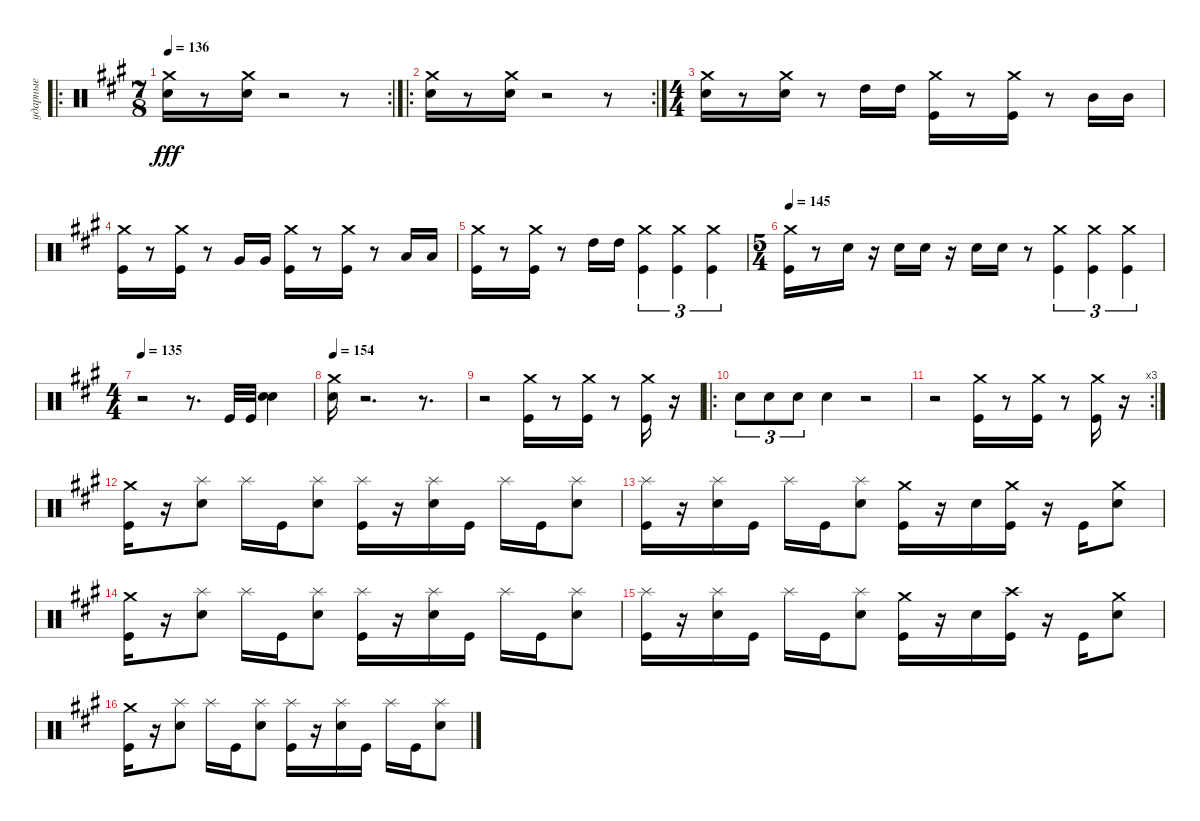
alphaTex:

\track ("ударные" "ударные") {instrument percussion}
\staff {score}
\articulation defaults
\ro
\rc 2
\ts (7 8)
\tempo 136
\clef neutral
\ks f#minor
("Crash medium (hit)" "Snare (hit) 2").16{dy fff} r.8 ("Crash medium (hit)" "Snare (hit) 2").16 r.2 r.8 |
\ro
\rc 2
("Crash medium (hit)" "Snare (hit) 2").16 r.8 ("Crash medium (hit)" "Snare (hit) 2").16 r.2 r.8 |
\ts (4 4)
("Crash medium (hit)" "Snare (hit) 2").16 r.8 ("Snare (hit) 2" "Crash medium (hit)").16 r.8 "High Tom (hit)".16 "High Tom (hit)".16 ("Crash medium (hit)" "Kick (hit)").16 r.8 ("Crash medium (hit)" "Kick (hit)").16 r.8 "Mid Tom (hit)".16 "Mid Tom (hit)".16 |
("Crash medium (hit)" "Kick (hit)").16 r.8 ("Crash medium (hit)" "Kick (hit)").16 r.8 "Very Low Tom (hit)".16 "Very Low Tom (hit)".16 ("Crash medium (hit)" "Kick (hit)").16 r.8 ("Crash medium (hit)" "Kick (hit)").16 r.8 "Low Tom (hit)".16 "Low Tom (hit)".16 |
("Crash medium (hit)" "Kick (hit)").16 r.8 ("Crash medium (hit)" "Kick (hit)").16 r.8 "High Tom (hit)".16 "High Tom (hit)".16 ("Kick (hit)" "Crash medium (hit)").4{tu (3 2)} ("Kick (hit)" "Crash medium (hit)").4{tu (3 2)} ("Kick (hit)" "Crash medium (hit)").4{tu (3 2)} |
\ts (5 4)
\tempo 145
("Crash medium (hit)" "Kick (hit)").16 r.8 "Snare (hit) 2".16 r.16 "Snare (hit) 2".16 "Snare (hit) 2".16 r.16 "Snare (hit) 2".16 "Snare (hit) 2".16 r.8 ("Kick (hit)" "Crash medium (hit)").4{tu (3 2)} ("Kick (hit)" "Crash medium (hit)").4{tu (3 2)} ("Crash medium (hit)" "Kick (hit)").4{tu (3 2)} |
\ts (4 4)
\tempo 135
r.2 r.8{d} "Kick (hit)".32 "Kick (hit)".32 ("Snare (hit) 2" "Snare (hit) 2").4 |
\tempo 154
("Crash medium (hit)" "Snare (hit) 2").16 r.2{d} r.8{d} |
r.2 ("Crash medium (hit)" "Kick (hit)").16 r.8 ("Crash medium (hit)" "Kick (hit)").16 r.8 ("Crash medium (hit)" "Kick (hit)").16 r.16 |
\ro "Snare (hit) 2".8{tu (3 2)} "Snare (hit) 2".8{tu (3 2)} "Snare (hit) 2".8{tu (3 2)} "Snare (hit) 2".4
r.2 |
\rc 3
r.2 ("Crash medium (hit)" "Kick (hit)").16 r.8 ("Kick (hit)" "Crash medium (hit)").16 r.8 ("Crash medium (hit)" "Kick (hit)").16 r.16 |
("Kick (hit)" "Crash medium (hit)").16 r.16 ("Snare (hit) 2" "Splash (hit)").8 "Splash (hit)".16 "Kick (hit)".16 ("Snare (hit) 2" "Splash (hit)").8 ("Kick (hit)" "Splash (hit)").16 r.16 ("Snare (hit) 2" "Splash (hit)").16 "Kick (hit)".16 "Splash (hit)".16 "Kick (hit)".16 ("Snare (hit) 2" "Splash (hit)").8 |
("Kick (hit)" "Splash (hit)").16 r.16 ("Snare (hit) 2" "Splash (hit)").16 "Kick (hit)".16 "Splash (hit)".16 "Kick (hit)".16 ("Snare (hit) 2" "Splash (hit)").8 ("Crash medium (hit)" "Kick (hit)").16 r.16 "Snare (hit) 2".16 ("Crash medium (hit)" "Kick (hit)").16 r.16 "Kick (hit)".16 ("Crash medium (hit)" "Snare (hit) 2").8 |
("Kick (hit)" "Crash medium (hit)").16 r.16 ("Snare (hit) 2" "Splash (hit)").8 "Splash (hit)".16 "Kick (hit)".16 ("Snare (hit) 2" "Splash (hit)").8 ("Kick (hit)" "Splash (hit)").16 r.16 ("Snare (hit) 2" "Splash (hit)").16 "Kick (hit)".16 "Splash (hit)".16 "Kick (hit)".16 ("Snare (hit) 2" "Splash (hit)").8 |
("Kick (hit)" "Splash (hit)").16 r.16 ("Snare (hit) 2" "Splash (hit)").16 "Kick (hit)".16 "Splash (hit)".16 "Kick (hit)".16 ("Snare (hit) 2" "Splash (hit)").8 ("Crash medium (hit)" "Kick (hit)").16 r.16 "Snare (hit) 2".16 ("Kick (hit)" "Crash high (hit)").16 r.16 "Kick (hit)".16 ("Crash medium (hit)" "Snare (hit) 2").8 |
("Kick (hit)" "Crash medium (hit)").16 r.16 ("Snare (hit) 2" "Splash (hit)").8 "Splash (hit)".16 "Kick (hit)".16 ("Snare (hit) 2" "Splash (hit)").8 ("Kick (hit)" "Splash (hit)").16 r.16 ("Snare (hit) 2" "Splash (hit)").16 "Kick (hit)".16 "Splash (hit)".16 "Kick (hit)".16 ("Snare (hit) 2" "Splash (hit)").8
